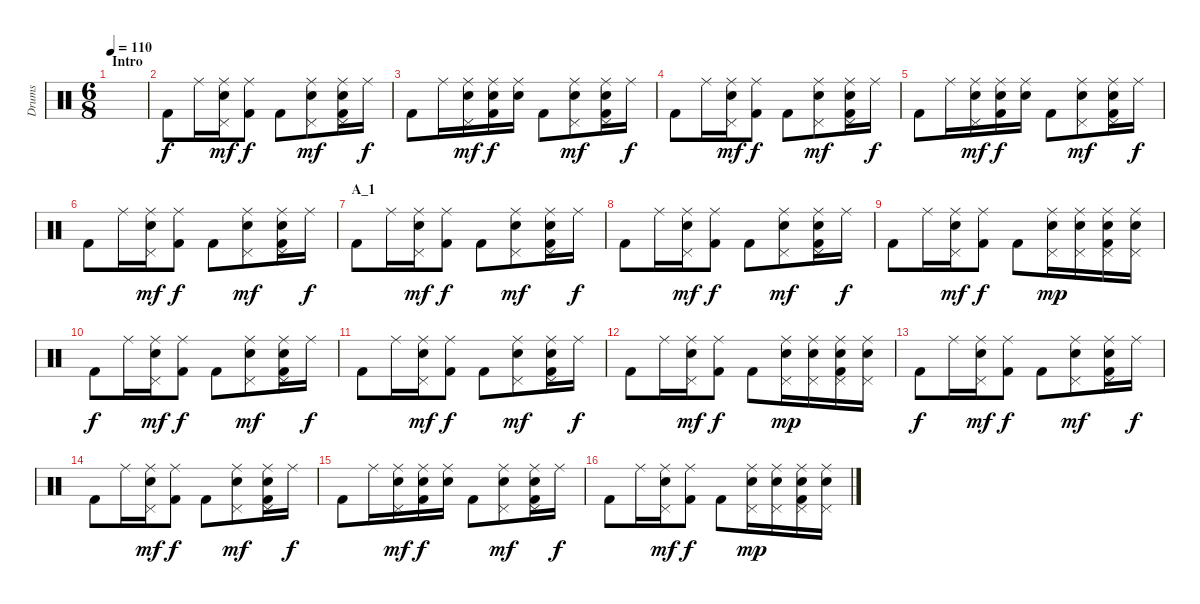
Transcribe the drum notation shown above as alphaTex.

\track ("Drums" "Drums") {instrument percussion}
\staff {score}
\articulation defaults
\ts (6 8)
\section ("" "Intro")
\tempo 110
\clef neutral
\ks c
|
"Kick (hit) 2".8 "Ride (middle)".16 ("Ride (middle)" "Pedal Hi-Hat (hit)" "Electric Snare (hit)").16{dy mf} ("Ride (middle)" "Kick (hit) 2").8{dy f} "Kick (hit) 2".8 ("Ride (middle)" "Pedal Hi-Hat (hit)" "Electric Snare (hit)").8{dy mf} ("Ride (middle)" "Pedal Hi-Hat (hit)" "Electric Snare (hit)" "Kick (hit) 2").16 "Ride (middle)".16{dy f} |
"Kick (hit) 2".8 "Ride (middle)".16 ("Ride (middle)" "Pedal Hi-Hat (hit)" "Electric Snare (hit)").16{dy mf} ("Ride (middle)" "Electric Snare (hit)" "Kick (hit) 2").16{dy f} ("Ride (middle)" "Electric Snare (hit)").16 "Kick (hit) 2".8 ("Ride (middle)" "Pedal Hi-Hat (hit)" "Electric Snare (hit)").8{dy mf} ("Ride (middle)" "Pedal Hi-Hat (hit)" "Electric Snare (hit)" "Kick (hit) 2").16 "Ride (middle)".16{dy f} |
"Kick (hit) 2".8 "Ride (middle)".16 ("Ride (middle)" "Pedal Hi-Hat (hit)" "Electric Snare (hit)").16{dy mf} ("Ride (middle)" "Kick (hit) 2").8{dy f} "Kick (hit) 2".8 ("Ride (middle)" "Pedal Hi-Hat (hit)" "Electric Snare (hit)").8{dy mf} ("Ride (middle)" "Pedal Hi-Hat (hit)" "Electric Snare (hit)" "Kick (hit) 2").16 "Ride (middle)".16{dy f} |
"Kick (hit) 2".8 "Ride (middle)".16 ("Ride (middle)" "Pedal Hi-Hat (hit)" "Electric Snare (hit)").16{dy mf} ("Ride (middle)" "Electric Snare (hit)" "Kick (hit) 2").16{dy f} ("Ride (middle)" "Electric Snare (hit)").16 "Kick (hit) 2".8 ("Ride (middle)" "Pedal Hi-Hat (hit)" "Electric Snare (hit)").8{dy mf} ("Ride (middle)" "Pedal Hi-Hat (hit)" "Electric Snare (hit)" "Kick (hit) 2").16 "Ride (middle)".16{dy f} |
"Kick (hit) 2".8 "Ride (middle)".16 ("Ride (middle)" "Pedal Hi-Hat (hit)" "Electric Snare (hit)").16{dy mf} ("Ride (middle)" "Kick (hit) 2").8{dy f} "Kick (hit) 2".8 ("Ride (middle)" "Pedal Hi-Hat (hit)" "Electric Snare (hit)").8{dy mf} ("Ride (middle)" "Pedal Hi-Hat (hit)" "Electric Snare (hit)" "Kick (hit) 2").16 "Ride (middle)".16{dy f} |
\section ("" "A_1")
"Kick (hit) 2".8 "Ride (middle)".16 ("Ride (middle)" "Pedal Hi-Hat (hit)" "Electric Snare (hit)").16{dy mf} ("Ride (middle)" "Kick (hit) 2").8{dy f} "Kick (hit) 2".8 ("Ride (middle)" "Pedal Hi-Hat (hit)" "Electric Snare (hit)").8{dy mf} ("Ride (middle)" "Pedal Hi-Hat (hit)" "Electric Snare (hit)" "Kick (hit) 2").16 "Ride (middle)".16{dy f} |
"Kick (hit) 2".8 "Ride (middle)".16 ("Ride (middle)" "Pedal Hi-Hat (hit)" "Electric Snare (hit)").16{dy mf} ("Ride (middle)" "Kick (hit) 2").8{dy f} "Kick (hit) 2".8 ("Ride (middle)" "Pedal Hi-Hat (hit)" "Electric Snare (hit)").8{dy mf} ("Ride (middle)" "Pedal Hi-Hat (hit)" "Electric Snare (hit)" "Kick (hit) 2").16 "Ride (middle)".16{dy f} |
"Kick (hit) 2".8 "Ride (middle)".16 ("Ride (middle)" "Pedal Hi-Hat (hit)" "Electric Snare (hit)").16{dy mf} ("Ride (middle)" "Kick (hit) 2").8{dy f} "Kick (hit) 2".8 ("Ride (middle)" "Pedal Hi-Hat (hit)" "Electric Snare (hit)").16{dy mp} ("Ride (middle)" "Pedal Hi-Hat (hit)" "Electric Snare (hit)").16 ("Ride (middle)" "Pedal Hi-Hat (hit)" "Electric Snare (hit)" "Kick (hit) 2").16 ("Ride (middle)" "Pedal Hi-Hat (hit)" "Electric Snare (hit)").16 |
"Kick (hit) 2".8{dy f} "Ride (middle)".16 ("Ride (middle)" "Pedal Hi-Hat (hit)" "Electric Snare (hit)").16{dy mf} ("Ride (middle)" "Kick (hit) 2").8{dy f} "Kick (hit) 2".8 ("Ride (middle)" "Pedal Hi-Hat (hit)" "Electric Snare (hit)").8{dy mf} ("Ride (middle)" "Pedal Hi-Hat (hit)" "Electric Snare (hit)" "Kick (hit) 2").16 "Ride (middle)".16{dy f} |
"Kick (hit) 2".8 "Ride (middle)".16 ("Ride (middle)" "Pedal Hi-Hat (hit)" "Electric Snare (hit)").16{dy mf} ("Ride (middle)" "Kick (hit) 2").8{dy f} "Kick (hit) 2".8 ("Ride (middle)" "Pedal Hi-Hat (hit)" "Electric Snare (hit)").8{dy mf} ("Ride (middle)" "Pedal Hi-Hat (hit)" "Electric Snare (hit)" "Kick (hit) 2").16 "Ride (middle)".16{dy f} |
"Kick (hit) 2".8 "Ride (middle)".16 ("Ride (middle)" "Pedal Hi-Hat (hit)" "Electric Snare (hit)").16{dy mf} ("Ride (middle)" "Kick (hit) 2").8{dy f} "Kick (hit) 2".8 ("Ride (middle)" "Pedal Hi-Hat (hit)" "Electric Snare (hit)").16{dy mp} ("Ride (middle)" "Pedal Hi-Hat (hit)" "Electric Snare (hit)").16 ("Ride (middle)" "Pedal Hi-Hat (hit)" "Electric Snare (hit)" "Kick (hit) 2").16 ("Ride (middle)" "Pedal Hi-Hat (hit)" "Electric Snare (hit)").16 |
"Kick (hit) 2".8{dy f} "Ride (middle)".16 ("Ride (middle)" "Pedal Hi-Hat (hit)" "Electric Snare (hit)").16{dy mf} ("Ride (middle)" "Kick (hit) 2").8{dy f} "Kick (hit) 2".8 ("Ride (middle)" "Pedal Hi-Hat (hit)" "Electric Snare (hit)").8{dy mf} ("Ride (middle)" "Pedal Hi-Hat (hit)" "Electric Snare (hit)" "Kick (hit) 2").16 "Ride (middle)".16{dy f} |
"Kick (hit) 2".8 "Ride (middle)".16 ("Ride (middle)" "Pedal Hi-Hat (hit)" "Electric Snare (hit)").16{dy mf} ("Ride (middle)" "Kick (hit) 2").8{dy f} "Kick (hit) 2".8 ("Ride (middle)" "Pedal Hi-Hat (hit)" "Electric Snare (hit)").8{dy mf} ("Ride (middle)" "Pedal Hi-Hat (hit)" "Electric Snare (hit)" "Kick (hit) 2").16 "Ride (middle)".16{dy f} |
"Kick (hit) 2".8 "Ride (middle)".16 ("Ride (middle)" "Pedal Hi-Hat (hit)" "Electric Snare (hit)").16{dy mf} ("Ride (middle)" "Electric Snare (hit)" "Kick (hit) 2").16{dy f} ("Ride (middle)" "Electric Snare (hit)").16 "Kick (hit) 2".8 ("Ride (middle)" "Pedal Hi-Hat (hit)" "Electric Snare (hit)").8{dy mf} ("Ride (middle)" "Pedal Hi-Hat (hit)" "Electric Snare (hit)" "Kick (hit) 2").16 "Ride (middle)".16{dy f} |
"Kick (hit) 2".8 "Ride (middle)".16 ("Ride (middle)" "Pedal Hi-Hat (hit)" "Electric Snare (hit)").16{dy mf} ("Ride (middle)" "Kick (hit) 2").8{dy f} "Kick (hit) 2".8 ("Ride (middle)" "Pedal Hi-Hat (hit)" "Electric Snare (hit)").16{dy mp} ("Ride (middle)" "Pedal Hi-Hat (hit)" "Electric Snare (hit)").16 ("Ride (middle)" "Pedal Hi-Hat (hit)" "Electric Snare (hit)" "Kick (hit) 2").16 ("Ride (middle)" "Pedal Hi-Hat (hit)" "Electric Snare (hit)").16
